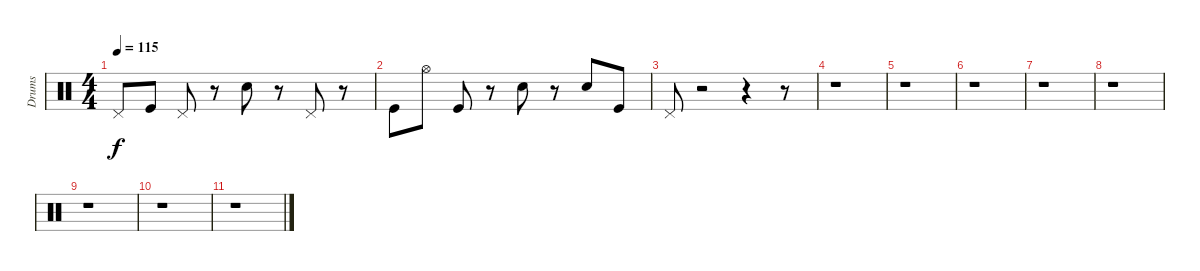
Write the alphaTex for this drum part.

\track ("Drums" "Drums") {instrument percussion}
\staff {score}
\articulation defaults
\ts (4 4)
\tempo 115
\clef neutral
\ks c "Pedal Hi-Hat (hit)".8{dy f} "Kick (hit)".8 "Pedal Hi-Hat (hit)".8
r.8 "Snare (hit) 2".8 r.8 "Pedal Hi-Hat (hit)".8 r.8 |
"Kick (hit)".8 "Hi-Hat (open)".8 "Kick (hit)".8 r.8 "Snare (hit) 2".8 r.8 "Snare (hit) 2".8 "Kick (hit)".8 |
"Pedal Hi-Hat (hit)".8 r.2 r.4 r.8 |
r.1 |
r.1 |
r.1 |
r.1 |
r.1 |
r.1 |
r.1 |
r.1
